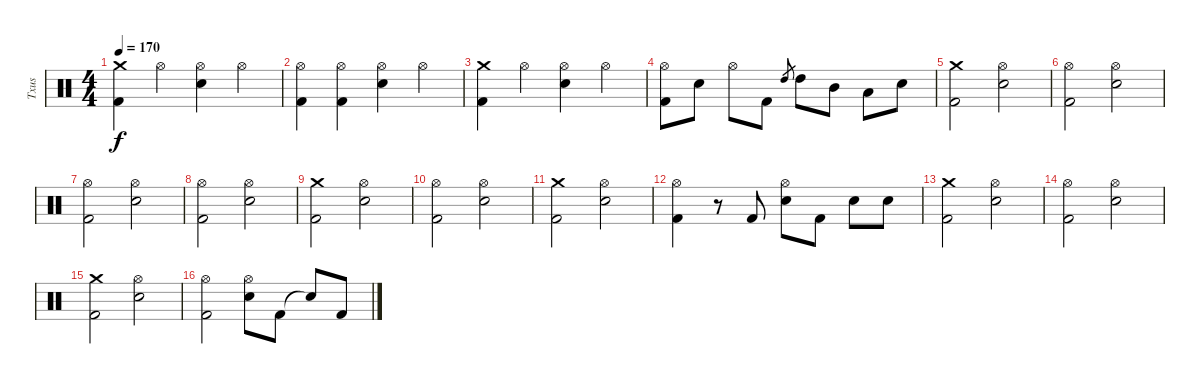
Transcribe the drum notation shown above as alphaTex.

\track ("Txus" "Txus") {instrument percussion}
\staff {score}
\articulation defaults
\ts (4 4)
\tempo 170
\clef neutral
\ks c
("Crash medium (hit)" "Kick (hit) 2").4{dy f} "Hi-Hat (open)".4 ("Hi-Hat (open)" "Snare (hit) 2").4 "Hi-Hat (open)".4 |
("Hi-Hat (open)" "Kick (hit) 2").4 ("Hi-Hat (open)" "Kick (hit) 2").4 ("Hi-Hat (open)" "Snare (hit) 2").4 "Hi-Hat (open)".4 |
("Crash medium (hit)" "Kick (hit) 2").4 "Hi-Hat (open)".4 ("Hi-Hat (open)" "Snare (hit) 2").4 "Hi-Hat (open)".4 |
("Hi-Hat (open)" "Kick (hit) 2").8 "Snare (hit) 2".8 "Hi-Hat (open)".8 "Kick (hit) 2".8 "High Tom (hit)".8{gr} "High Tom (hit)".8 "Mid Tom (hit)".8 "Low Tom (hit)".8 "Snare (hit) 2".8 |
("Crash medium (hit)" "Kick (hit) 2").2 ("Hi-Hat (open)" "Snare (hit) 2").2 |
("Hi-Hat (open)" "Kick (hit) 2").2 ("Hi-Hat (open)" "Snare (hit) 2").2 |
("Hi-Hat (open)" "Kick (hit) 2").2 ("Hi-Hat (open)" "Snare (hit) 2").2 |
("Hi-Hat (open)" "Kick (hit) 2").2 ("Hi-Hat (open)" "Snare (hit) 2").2 |
("Crash medium (hit)" "Kick (hit) 2").2 ("Hi-Hat (open)" "Snare (hit) 2").2 |
("Hi-Hat (open)" "Kick (hit) 2").2 ("Hi-Hat (open)" "Snare (hit) 2").2 |
("Crash medium (hit)" "Kick (hit) 2").2 ("Hi-Hat (open)" "Snare (hit) 2").2 |
("Hi-Hat (open)" "Kick (hit) 2").4 r.8 "Kick (hit) 2".8 ("Hi-Hat (open)" "Snare (hit) 2").8 "Kick (hit) 2".8 "Snare (hit) 2".8 "Snare (hit) 2".8 |
("Crash medium (hit)" "Kick (hit) 2").2 ("Hi-Hat (open)" "Snare (hit) 2").2 |
("Hi-Hat (open)" "Kick (hit) 2").2 ("Hi-Hat (open)" "Snare (hit) 2").2 |
("Crash medium (hit)" "Kick (hit) 2").2 ("Hi-Hat (open)" "Snare (hit) 2").2 |
("Hi-Hat (open)" "Kick (hit) 2").2 ("Hi-Hat (open)" "Snare (hit) 2").8 "Kick (hit) 2".8 "Snare (hit)"{t}.8 "Kick (hit) 2".8
